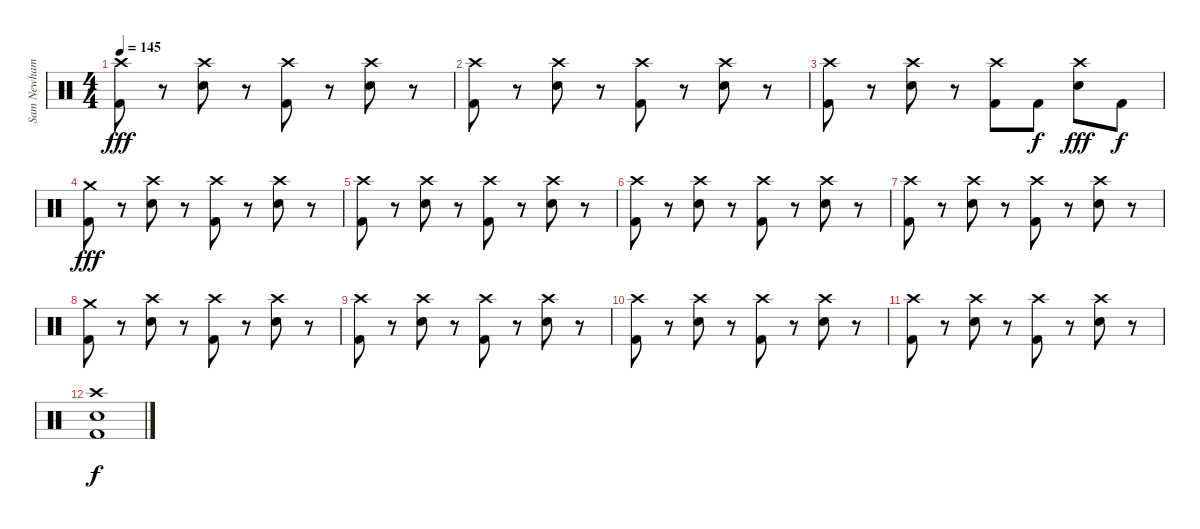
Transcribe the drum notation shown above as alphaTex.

\track ("Sam Newham" "Sam Newham") {instrument percussion}
\staff {score}
\articulation defaults
\ts (4 4)
\tempo 145
\clef neutral
\ks c
("Crash high (hit)" "Kick (hit) 2").8{dy fff} r.8 ("Crash high (hit)" "Electric Snare (hit)").8 r.8 ("Crash high (hit)" "Kick (hit) 2").8 r.8 ("Crash high (hit)" "Electric Snare (hit)").8 r.8 |
("Crash high (hit)" "Kick (hit) 2").8 r.8 ("Crash high (hit)" "Electric Snare (hit)").8 r.8 ("Crash high (hit)" "Kick (hit) 2").8 r.8 ("Crash high (hit)" "Electric Snare (hit)").8 r.8 |
("Crash high (hit)" "Kick (hit) 2").8 r.8 ("Crash high (hit)" "Electric Snare (hit)").8 r.8 ("Crash high (hit)" "Kick (hit) 2").8 "Kick (hit) 2".8{dy f} ("Crash high (hit)" "Electric Snare (hit)").8{dy fff} "Kick (hit) 2".8{dy f} |
("Crash medium (hit)" "Kick (hit) 2").8{dy fff} r.8 ("Crash high (hit)" "Electric Snare (hit)").8 r.8 ("Crash high (hit)" "Kick (hit) 2").8 r.8 ("Crash high (hit)" "Electric Snare (hit)").8 r.8 |
("Crash high (hit)" "Kick (hit) 2").8 r.8 ("Crash high (hit)" "Electric Snare (hit)").8 r.8 ("Crash high (hit)" "Kick (hit) 2").8 r.8 ("Crash high (hit)" "Electric Snare (hit)").8 r.8 |
("Crash high (hit)" "Kick (hit) 2").8 r.8 ("Crash high (hit)" "Electric Snare (hit)").8 r.8 ("Crash high (hit)" "Kick (hit) 2").8 r.8 ("Crash high (hit)" "Electric Snare (hit)").8 r.8 |
("Crash high (hit)" "Kick (hit) 2").8 r.8 ("Crash high (hit)" "Electric Snare (hit)").8 r.8 ("Crash high (hit)" "Kick (hit) 2").8 r.8 ("Crash high (hit)" "Electric Snare (hit)").8 r.8 |
("Crash medium (hit)" "Kick (hit) 2").8 r.8 ("Crash high (hit)" "Electric Snare (hit)").8 r.8 ("Crash high (hit)" "Kick (hit) 2").8 r.8 ("Crash high (hit)" "Electric Snare (hit)").8 r.8 |
("Crash high (hit)" "Kick (hit) 2").8 r.8 ("Crash high (hit)" "Electric Snare (hit)").8 r.8 ("Crash high (hit)" "Kick (hit) 2").8 r.8 ("Crash high (hit)" "Electric Snare (hit)").8 r.8 |
("Crash high (hit)" "Kick (hit) 2").8 r.8 ("Crash high (hit)" "Electric Snare (hit)").8 r.8 ("Crash high (hit)" "Kick (hit) 2").8 r.8 ("Crash high (hit)" "Electric Snare (hit)").8 r.8 |
("Crash high (hit)" "Kick (hit) 2").8 r.8 ("Crash high (hit)" "Electric Snare (hit)").8 r.8 ("Crash high (hit)" "Kick (hit) 2").8 r.8 ("Crash high (hit)" "Electric Snare (hit)").8 r.8 |
("Crash high (hit)" "Electric Snare (hit)" "Kick (hit) 2").1{dy f}
